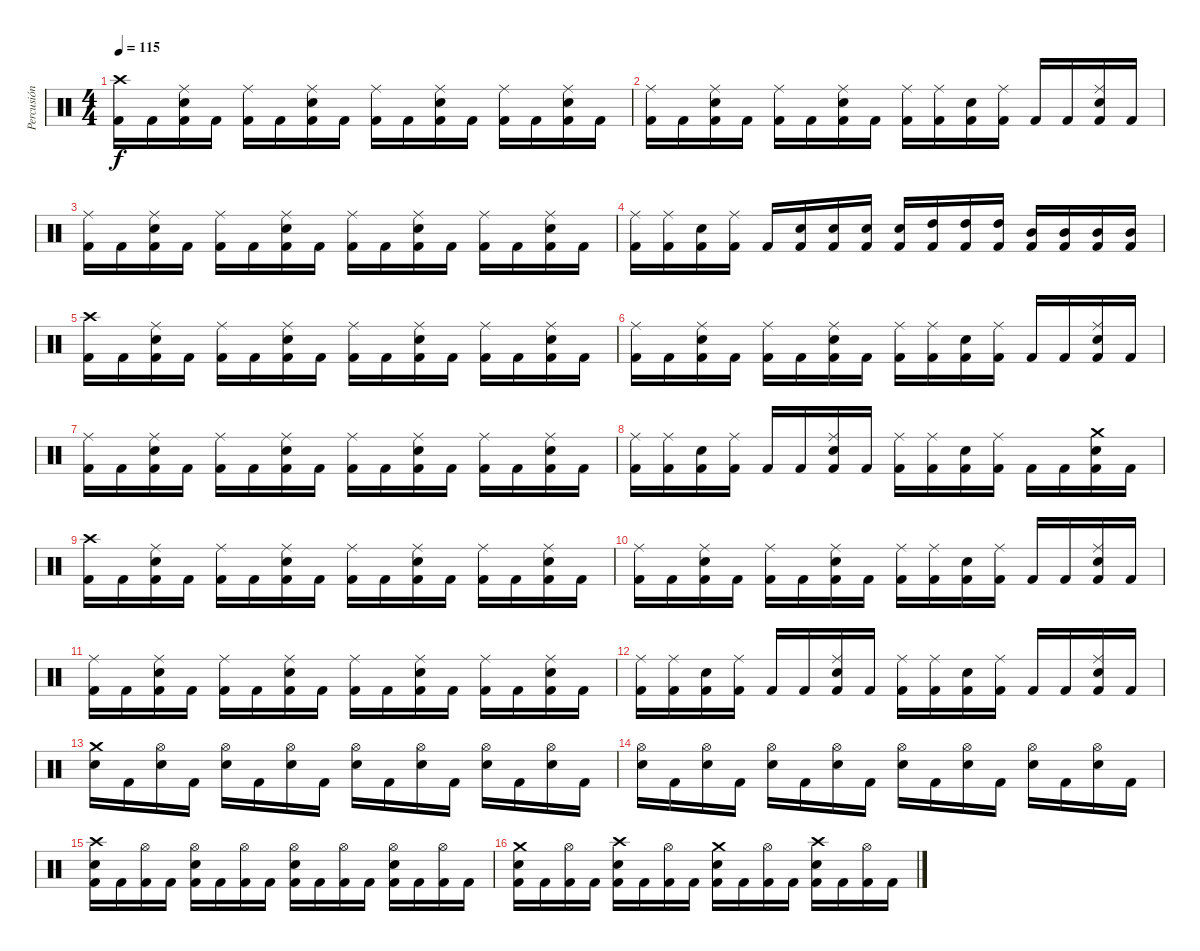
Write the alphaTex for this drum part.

\track ("Percusión" "Percusión") {instrument percussion}
\staff {score}
\articulation defaults
\ts (4 4)
\tempo 115
\clef neutral
\ks c
("Crash high (hit)" "Kick (hit) 2").16{dy f} "Kick (hit) 2".16 ("Ride (middle)" "Snare (hit) 2" "Kick (hit) 2").16 "Kick (hit) 2".16 ("Ride (middle)" "Kick (hit) 2").16 "Kick (hit) 2".16 ("Ride (middle)" "Snare (hit) 2" "Kick (hit) 2").16 "Kick (hit) 2".16 ("Ride (middle)" "Kick (hit) 2").16 "Kick (hit) 2".16 ("Ride (middle)" "Snare (hit) 2" "Kick (hit) 2").16 "Kick (hit) 2".16 ("Ride (middle)" "Kick (hit) 2").16 "Kick (hit) 2".16 ("Ride (middle)" "Snare (hit) 2" "Kick (hit) 2").16 "Kick (hit) 2".16 |
("Ride (middle)" "Kick (hit) 2").16 "Kick (hit) 2".16 ("Ride (middle)" "Snare (hit) 2" "Kick (hit) 2").16 "Kick (hit) 2".16 ("Ride (middle)" "Kick (hit) 2").16 "Kick (hit) 2".16 ("Ride (middle)" "Snare (hit) 2" "Kick (hit) 2").16 "Kick (hit) 2".16 ("Ride (middle)" "Kick (hit) 2").16 ("Ride (middle)" "Kick (hit) 2").16 ("Snare (hit) 2" "Kick (hit) 2").16 ("Ride (middle)" "Kick (hit) 2").16 "Kick (hit) 2".16 "Kick (hit) 2".16 ("Ride (middle)" "Snare (hit) 2" "Kick (hit) 2").16 "Kick (hit) 2".16 |
("Ride (middle)" "Kick (hit) 2").16 "Kick (hit) 2".16 ("Ride (middle)" "Snare (hit) 2" "Kick (hit) 2").16 "Kick (hit) 2".16 ("Ride (middle)" "Kick (hit) 2").16 "Kick (hit) 2".16 ("Ride (middle)" "Snare (hit) 2" "Kick (hit) 2").16 "Kick (hit) 2".16 ("Ride (middle)" "Kick (hit) 2").16 "Kick (hit) 2".16 ("Ride (middle)" "Snare (hit) 2" "Kick (hit) 2").16 "Kick (hit) 2".16 ("Ride (middle)" "Kick (hit) 2").16 "Kick (hit) 2".16 ("Ride (middle)" "Snare (hit) 2" "Kick (hit) 2").16 "Kick (hit) 2".16 |
("Ride (middle)" "Kick (hit) 2").16 ("Ride (middle)" "Kick (hit) 2").16 ("Snare (hit) 2" "Kick (hit) 2").16 ("Ride (middle)" "Kick (hit) 2").16 "Kick (hit) 2".16 ("Snare (hit) 2" "Kick (hit) 2").16 ("Snare (hit) 2" "Kick (hit) 2").16 ("Snare (hit) 2" "Kick (hit) 2").16 ("Snare (hit) 2" "Kick (hit) 2").16 ("High Tom (hit)" "Kick (hit) 2").16 ("High Tom (hit)" "Kick (hit) 2").16 ("High Tom (hit)" "Kick (hit) 2").16 ("Mid Tom (hit)" "Kick (hit) 2").16 ("Mid Tom (hit)" "Kick (hit) 2").16 ("Mid Tom (hit)" "Kick (hit) 2").16 ("Mid Tom (hit)" "Kick (hit) 2").16 |
("Crash high (hit)" "Kick (hit) 2").16 "Kick (hit) 2".16 ("Ride (middle)" "Snare (hit) 2" "Kick (hit) 2").16 "Kick (hit) 2".16 ("Ride (middle)" "Kick (hit) 2").16 "Kick (hit) 2".16 ("Ride (middle)" "Snare (hit) 2" "Kick (hit) 2").16 "Kick (hit) 2".16 ("Ride (middle)" "Kick (hit) 2").16 "Kick (hit) 2".16 ("Ride (middle)" "Snare (hit) 2" "Kick (hit) 2").16 "Kick (hit) 2".16 ("Ride (middle)" "Kick (hit) 2").16 "Kick (hit) 2".16 ("Ride (middle)" "Snare (hit) 2" "Kick (hit) 2").16 "Kick (hit) 2".16 |
("Ride (middle)" "Kick (hit) 2").16 "Kick (hit) 2".16 ("Ride (middle)" "Snare (hit) 2" "Kick (hit) 2").16 "Kick (hit) 2".16 ("Ride (middle)" "Kick (hit) 2").16 "Kick (hit) 2".16 ("Ride (middle)" "Snare (hit) 2" "Kick (hit) 2").16 "Kick (hit) 2".16 ("Ride (middle)" "Kick (hit) 2").16 ("Ride (middle)" "Kick (hit) 2").16 ("Snare (hit) 2" "Kick (hit) 2").16 ("Ride (middle)" "Kick (hit) 2").16 "Kick (hit) 2".16 "Kick (hit) 2".16 ("Ride (middle)" "Snare (hit) 2" "Kick (hit) 2").16 "Kick (hit) 2".16 |
("Ride (middle)" "Kick (hit) 2").16 "Kick (hit) 2".16 ("Ride (middle)" "Snare (hit) 2" "Kick (hit) 2").16 "Kick (hit) 2".16 ("Ride (middle)" "Kick (hit) 2").16 "Kick (hit) 2".16 ("Ride (middle)" "Snare (hit) 2" "Kick (hit) 2").16 "Kick (hit) 2".16 ("Ride (middle)" "Kick (hit) 2").16 "Kick (hit) 2".16 ("Ride (middle)" "Snare (hit) 2" "Kick (hit) 2").16 "Kick (hit) 2".16 ("Ride (middle)" "Kick (hit) 2").16 "Kick (hit) 2".16 ("Ride (middle)" "Snare (hit) 2" "Kick (hit) 2").16 "Kick (hit) 2".16 |
("Ride (middle)" "Kick (hit) 2").16 ("Ride (middle)" "Kick (hit) 2").16 ("Snare (hit) 2" "Kick (hit) 2").16 ("Ride (middle)" "Kick (hit) 2").16 "Kick (hit) 2".16 "Kick (hit) 2".16 ("Ride (middle)" "Snare (hit) 2" "Kick (hit) 2").16 "Kick (hit) 2".16 ("Ride (middle)" "Kick (hit) 2").16 ("Ride (middle)" "Kick (hit) 2").16 ("Snare (hit) 2" "Kick (hit) 2").16 ("Ride (middle)" "Kick (hit) 2").16 "Kick (hit) 2".16 "Kick (hit) 2".16 ("Crash medium (hit)" "Snare (hit) 2" "Kick (hit) 2").16 "Kick (hit) 2".16 |
("Crash high (hit)" "Kick (hit) 2").16 "Kick (hit) 2".16 ("Ride (middle)" "Snare (hit) 2" "Kick (hit) 2").16 "Kick (hit) 2".16 ("Ride (middle)" "Kick (hit) 2").16 "Kick (hit) 2".16 ("Ride (middle)" "Snare (hit) 2" "Kick (hit) 2").16 "Kick (hit) 2".16 ("Ride (middle)" "Kick (hit) 2").16 "Kick (hit) 2".16 ("Ride (middle)" "Snare (hit) 2" "Kick (hit) 2").16 "Kick (hit) 2".16 ("Ride (middle)" "Kick (hit) 2").16 "Kick (hit) 2".16 ("Ride (middle)" "Snare (hit) 2" "Kick (hit) 2").16 "Kick (hit) 2".16 |
("Ride (middle)" "Kick (hit) 2").16 "Kick (hit) 2".16 ("Ride (middle)" "Snare (hit) 2" "Kick (hit) 2").16 "Kick (hit) 2".16 ("Ride (middle)" "Kick (hit) 2").16 "Kick (hit) 2".16 ("Ride (middle)" "Snare (hit) 2" "Kick (hit) 2").16 "Kick (hit) 2".16 ("Ride (middle)" "Kick (hit) 2").16 ("Ride (middle)" "Kick (hit) 2").16 ("Snare (hit) 2" "Kick (hit) 2").16 ("Ride (middle)" "Kick (hit) 2").16 "Kick (hit) 2".16 "Kick (hit) 2".16 ("Ride (middle)" "Snare (hit) 2" "Kick (hit) 2").16 "Kick (hit) 2".16 |
("Ride (middle)" "Kick (hit) 2").16 "Kick (hit) 2".16 ("Ride (middle)" "Snare (hit) 2" "Kick (hit) 2").16 "Kick (hit) 2".16 ("Ride (middle)" "Kick (hit) 2").16 "Kick (hit) 2".16 ("Ride (middle)" "Snare (hit) 2" "Kick (hit) 2").16 "Kick (hit) 2".16 ("Ride (middle)" "Kick (hit) 2").16 "Kick (hit) 2".16 ("Ride (middle)" "Snare (hit) 2" "Kick (hit) 2").16 "Kick (hit) 2".16 ("Ride (middle)" "Kick (hit) 2").16 "Kick (hit) 2".16 ("Ride (middle)" "Snare (hit) 2" "Kick (hit) 2").16 "Kick (hit) 2".16 |
("Ride (middle)" "Kick (hit) 2").16 ("Ride (middle)" "Kick (hit) 2").16 ("Snare (hit) 2" "Kick (hit) 2").16 ("Ride (middle)" "Kick (hit) 2").16 "Kick (hit) 2".16 "Kick (hit) 2".16 ("Ride (middle)" "Snare (hit) 2" "Kick (hit) 2").16 "Kick (hit) 2".16 ("Ride (middle)" "Kick (hit) 2").16 ("Ride (middle)" "Kick (hit) 2").16 ("Snare (hit) 2" "Kick (hit) 2").16 ("Ride (middle)" "Kick (hit) 2").16 "Kick (hit) 2".16 "Kick (hit) 2".16 ("Ride (middle)" "Snare (hit) 2" "Kick (hit) 2").16 "Kick (hit) 2".16 |
("Crash medium (hit)" "Snare (hit) 2").16 "Kick (hit) 2".16 ("Hi-Hat (open)" "Snare (hit) 2").16 "Kick (hit) 2".16 ("Hi-Hat (open)" "Snare (hit) 2").16 "Kick (hit) 2".16 ("Hi-Hat (open)" "Snare (hit) 2").16 "Kick (hit) 2".16 ("Hi-Hat (open)" "Snare (hit) 2").16 "Kick (hit) 2".16 ("Hi-Hat (open)" "Snare (hit) 2").16 "Kick (hit) 2".16 ("Hi-Hat (open)" "Snare (hit) 2").16 "Kick (hit) 2".16 ("Hi-Hat (open)" "Snare (hit) 2").16 "Kick (hit) 2".16 |
("Hi-Hat (open)" "Snare (hit) 2").16 "Kick (hit) 2".16 ("Hi-Hat (open)" "Snare (hit) 2").16 "Kick (hit) 2".16 ("Hi-Hat (open)" "Snare (hit) 2").16 "Kick (hit) 2".16 ("Hi-Hat (open)" "Snare (hit) 2").16 "Kick (hit) 2".16 ("Hi-Hat (open)" "Snare (hit) 2").16 "Kick (hit) 2".16 ("Hi-Hat (open)" "Snare (hit) 2").16 "Kick (hit) 2".16 ("Hi-Hat (open)" "Snare (hit) 2").16 "Kick (hit) 2".16 ("Hi-Hat (open)" "Snare (hit) 2").16 "Kick (hit) 2".16 |
("Crash high (hit)" "Snare (hit) 2" "Kick (hit) 2").16 "Kick (hit) 2".16 ("Hi-Hat (open)" "Kick (hit) 2").16 "Kick (hit) 2".16 ("Hi-Hat (open)" "Snare (hit) 2" "Kick (hit) 2").16 "Kick (hit) 2".16 ("Hi-Hat (open)" "Kick (hit) 2").16 "Kick (hit) 2".16 ("Hi-Hat (open)" "Snare (hit) 2" "Kick (hit) 2").16 "Kick (hit) 2".16 ("Hi-Hat (open)" "Kick (hit) 2").16 "Kick (hit) 2".16 ("Hi-Hat (open)" "Snare (hit) 2" "Kick (hit) 2").16 "Kick (hit) 2".16 ("Hi-Hat (open)" "Kick (hit) 2").16 "Kick (hit) 2".16 |
("Crash medium (hit)" "Snare (hit) 2" "Kick (hit) 2").16 "Kick (hit) 2".16 ("Hi-Hat (open)" "Kick (hit) 2").16 "Kick (hit) 2".16 ("Crash high (hit)" "Snare (hit) 2" "Kick (hit) 2").16 "Kick (hit) 2".16 ("Hi-Hat (open)" "Kick (hit) 2").16 "Kick (hit) 2".16 ("Crash medium (hit)" "Snare (hit) 2" "Kick (hit) 2").16 "Kick (hit) 2".16 ("Hi-Hat (open)" "Kick (hit) 2").16 "Kick (hit) 2".16 ("Crash high (hit)" "Snare (hit) 2" "Kick (hit) 2").16 "Kick (hit) 2".16 ("Hi-Hat (open)" "Kick (hit) 2").16 "Kick (hit) 2".16
